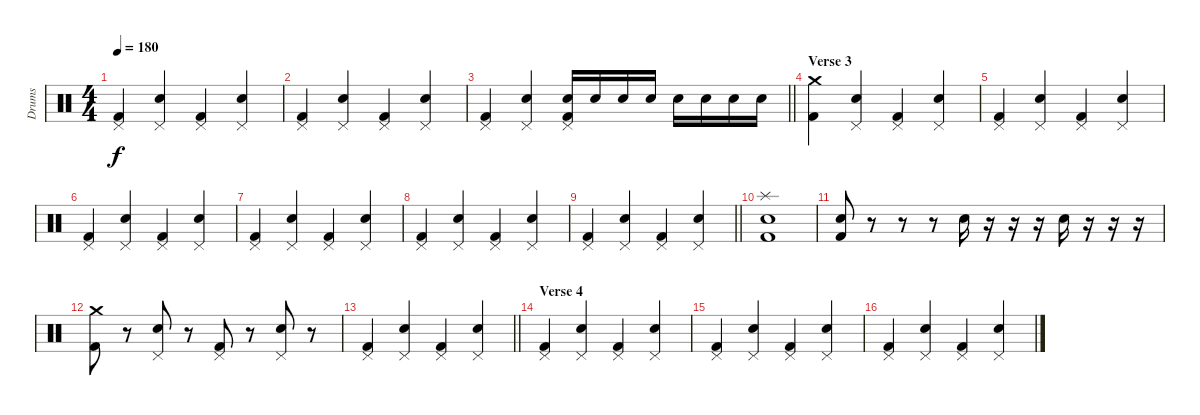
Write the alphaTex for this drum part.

\track ("Drums" "Drums") {instrument percussion}
\staff {score}
\articulation defaults
\ts (4 4)
\tempo 180
\clef neutral
\ks c
("Pedal Hi-Hat (hit)" "Kick (hit) 2").4{dy f} ("Pedal Hi-Hat (hit)" "Snare (hit) 2").4 ("Pedal Hi-Hat (hit)" "Kick (hit) 2").4 ("Pedal Hi-Hat (hit)" "Snare (hit) 2").4 |
("Pedal Hi-Hat (hit)" "Kick (hit) 2").4 ("Pedal Hi-Hat (hit)" "Snare (hit) 2").4 ("Pedal Hi-Hat (hit)" "Kick (hit) 2").4 ("Pedal Hi-Hat (hit)" "Snare (hit) 2").4 |
\barLineRight lightlight
("Pedal Hi-Hat (hit)" "Kick (hit) 2").4 ("Pedal Hi-Hat (hit)" "Snare (hit) 2").4 ("Pedal Hi-Hat (hit)" "Snare (hit) 2" "Kick (hit) 2").16 "Snare (hit) 2".16 "Snare (hit) 2".16 "Snare (hit) 2".16 "Snare (hit) 2".16 "Snare (hit) 2".16 "Snare (hit) 2".16 "Snare (hit) 2".16 |
\section ("" "Verse 3")
("Crash medium (hit)" "Kick (hit) 2").4 ("Pedal Hi-Hat (hit)" "Snare (hit) 2").4 ("Pedal Hi-Hat (hit)" "Kick (hit) 2").4 ("Pedal Hi-Hat (hit)" "Snare (hit) 2").4 |
("Pedal Hi-Hat (hit)" "Kick (hit) 2").4 ("Pedal Hi-Hat (hit)" "Snare (hit) 2").4 ("Pedal Hi-Hat (hit)" "Kick (hit) 2").4 ("Pedal Hi-Hat (hit)" "Snare (hit) 2").4 |
("Pedal Hi-Hat (hit)" "Kick (hit) 2").4 ("Pedal Hi-Hat (hit)" "Snare (hit) 2").4 ("Pedal Hi-Hat (hit)" "Kick (hit) 2").4 ("Pedal Hi-Hat (hit)" "Snare (hit) 2").4 |
("Pedal Hi-Hat (hit)" "Kick (hit) 2").4 ("Pedal Hi-Hat (hit)" "Snare (hit) 2").4 ("Pedal Hi-Hat (hit)" "Kick (hit) 2").4 ("Pedal Hi-Hat (hit)" "Snare (hit) 2").4 |
("Pedal Hi-Hat (hit)" "Kick (hit) 2").4 ("Pedal Hi-Hat (hit)" "Snare (hit) 2").4 ("Pedal Hi-Hat (hit)" "Kick (hit) 2").4 ("Pedal Hi-Hat (hit)" "Snare (hit) 2").4 |
\barLineRight lightlight
("Pedal Hi-Hat (hit)" "Kick (hit) 2").4 ("Pedal Hi-Hat (hit)" "Snare (hit) 2").4 ("Pedal Hi-Hat (hit)" "Kick (hit) 2").4 ("Pedal Hi-Hat (hit)" "Snare (hit) 2").4 |
("Splash (hit)" "Snare (hit) 2" "Kick (hit) 2").1 |
("Snare (hit) 2" "Kick (hit) 2").8 r.8 r.8 r.8 "Snare (hit) 2".16 r.16 r.16 r.16 "Snare (hit) 2".16 r.16 r.16 r.16 |
("Crash medium (hit)" "Kick (hit) 2").8 r.8 ("Pedal Hi-Hat (hit)" "Snare (hit) 2").8 r.8 ("Pedal Hi-Hat (hit)" "Kick (hit) 2").8 r.8 ("Pedal Hi-Hat (hit)" "Snare (hit) 2").8 r.8 |
\barLineRight lightlight
("Pedal Hi-Hat (hit)" "Kick (hit) 2").4 ("Pedal Hi-Hat (hit)" "Snare (hit) 2").4 ("Pedal Hi-Hat (hit)" "Kick (hit) 2").4 ("Pedal Hi-Hat (hit)" "Snare (hit) 2").4 |
\section ("" "Verse 4")
("Pedal Hi-Hat (hit)" "Kick (hit) 2").4 ("Pedal Hi-Hat (hit)" "Snare (hit) 2").4 ("Pedal Hi-Hat (hit)" "Kick (hit) 2").4 ("Pedal Hi-Hat (hit)" "Snare (hit) 2").4 |
("Pedal Hi-Hat (hit)" "Kick (hit) 2").4 ("Pedal Hi-Hat (hit)" "Snare (hit) 2").4 ("Pedal Hi-Hat (hit)" "Kick (hit) 2").4 ("Pedal Hi-Hat (hit)" "Snare (hit) 2").4 |
("Pedal Hi-Hat (hit)" "Kick (hit) 2").4 ("Pedal Hi-Hat (hit)" "Snare (hit) 2").4 ("Pedal Hi-Hat (hit)" "Kick (hit) 2").4 ("Pedal Hi-Hat (hit)" "Snare (hit) 2").4
